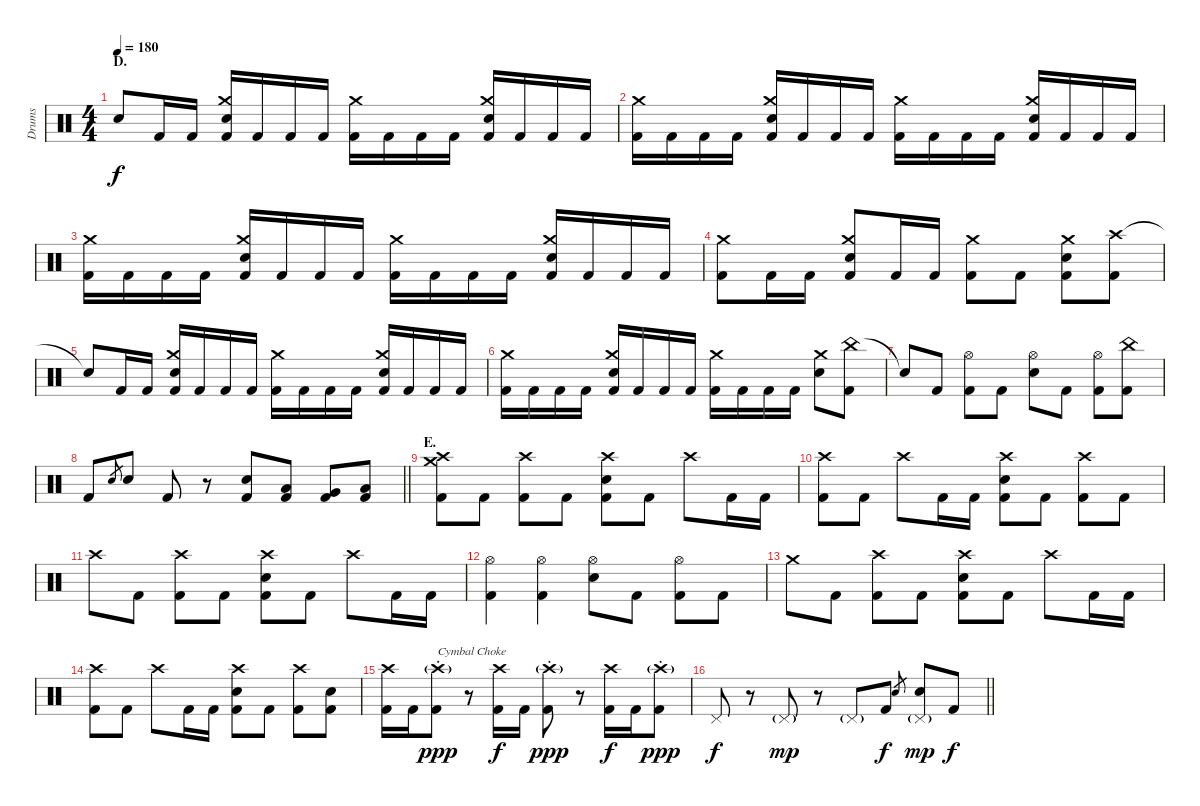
\track ("Drums" "Drums") {instrument percussion}
\staff {score}
\articulation defaults
\ts (4 4)
\section ("" "D.")
\tempo 180
\clef neutral
\ks c "Snare (hit)"{t}.8{dy f} "Kick (hit) 2".16 "Kick (hit) 2".16
("Crash medium (hit)" "Electric Snare (hit)" "Kick (hit) 2").16 "Kick (hit) 2".16 "Kick (hit) 2".16 "Kick (hit) 2".16 ("Crash medium (hit)" "Kick (hit) 2").16 "Kick (hit) 2".16 "Kick (hit) 2".16 "Kick (hit) 2".16 ("Crash medium (hit)" "Electric Snare (hit)" "Kick (hit) 2").16 "Kick (hit) 2".16 "Kick (hit) 2".16 "Kick (hit) 2".16 |
("Crash medium (hit)" "Kick (hit) 2").16 "Kick (hit) 2".16 "Kick (hit) 2".16 "Kick (hit) 2".16 ("Crash medium (hit)" "Electric Snare (hit)" "Kick (hit) 2").16 "Kick (hit) 2".16 "Kick (hit) 2".16 "Kick (hit) 2".16 ("Crash medium (hit)" "Kick (hit) 2").16 "Kick (hit) 2".16 "Kick (hit) 2".16 "Kick (hit) 2".16 ("Crash medium (hit)" "Electric Snare (hit)" "Kick (hit) 2").16 "Kick (hit) 2".16 "Kick (hit) 2".16 "Kick (hit) 2".16 |
("Crash medium (hit)" "Kick (hit) 2").16 "Kick (hit) 2".16 "Kick (hit) 2".16 "Kick (hit) 2".16 ("Crash medium (hit)" "Electric Snare (hit)" "Kick (hit) 2").16 "Kick (hit) 2".16 "Kick (hit) 2".16 "Kick (hit) 2".16 ("Crash medium (hit)" "Kick (hit) 2").16 "Kick (hit) 2".16 "Kick (hit) 2".16 "Kick (hit) 2".16 ("Crash medium (hit)" "Electric Snare (hit)" "Kick (hit) 2").16 "Kick (hit) 2".16 "Kick (hit) 2".16 "Kick (hit) 2".16 |
("Crash medium (hit)" "Kick (hit) 2").8 "Kick (hit) 2".16 "Kick (hit) 2".16 ("Crash medium (hit)" "Electric Snare (hit)" "Kick (hit) 2").8 "Kick (hit) 2".16 "Kick (hit) 2".16 ("Crash medium (hit)" "Kick (hit) 2").8 "Kick (hit) 2".8 ("Crash medium (hit)" "Electric Snare (hit)" "Kick (hit) 2").8 ("Crash high (hit)" "Kick (hit) 2").8 |
"Snare (hit)"{t}.8 "Kick (hit) 2".16 "Kick (hit) 2".16 ("Crash medium (hit)" "Electric Snare (hit)" "Kick (hit) 2").16 "Kick (hit) 2".16 "Kick (hit) 2".16 "Kick (hit) 2".16 ("Crash medium (hit)" "Kick (hit) 2").16 "Kick (hit) 2".16 "Kick (hit) 2".16 "Kick (hit) 2".16 ("Crash medium (hit)" "Electric Snare (hit)" "Kick (hit) 2").16 "Kick (hit) 2".16 "Kick (hit) 2".16 "Kick (hit) 2".16 |
("Crash medium (hit)" "Kick (hit) 2").16 "Kick (hit) 2".16 "Kick (hit) 2".16 "Kick (hit) 2".16 ("Crash medium (hit)" "Electric Snare (hit)" "Kick (hit) 2").16 "Kick (hit) 2".16 "Kick (hit) 2".16 "Kick (hit) 2".16 ("Crash medium (hit)" "Kick (hit) 2").16 "Kick (hit) 2".16 "Kick (hit) 2".16 "Kick (hit) 2".16 ("Crash medium (hit)" "Electric Snare (hit)").8 ("China (hit)" "Kick (hit) 2").8 |
"Snare (hit)"{t}.8 "Kick (hit) 2".8 ("Hi-Hat (open)" "Kick (hit) 2").8 "Kick (hit) 2".8 ("Hi-Hat (open)" "Electric Snare (hit)").8 "Kick (hit) 2".8 ("Hi-Hat (open)" "Kick (hit) 2").8 ("China (hit)" "Kick (hit) 2").8 |
\barLineRight lightlight "Kick (hit) 2".8 "Electric Snare (hit)".8{gr} "Electric Snare (hit)".8 "Kick (hit) 2".8
r.8 ("Electric Snare (hit)" "Kick (hit) 2").8 ("Low Tom (hit)" "Kick (hit) 2").8 ("Very Low Tom (hit)" "Kick (hit) 2").8 ("Low Floor Tom (hit)" "Kick (hit) 2").8 |
\section ("" "E.")
("Crash medium (hit)" "Crash high (hit)" "Kick (hit) 2").8 "Kick (hit) 2".8 ("Crash high (hit)" "Kick (hit) 2").8 "Kick (hit) 2".8 ("Crash high (hit)" "Electric Snare (hit)" "Kick (hit) 2").8 "Kick (hit) 2".8 "Crash high (hit)".8 "Kick (hit) 2".16 "Kick (hit) 2".16 |
("Crash high (hit)" "Kick (hit) 2").8 "Kick (hit) 2".8 "Crash high (hit)".8 "Kick (hit) 2".16 "Kick (hit) 2".16 ("Crash high (hit)" "Electric Snare (hit)" "Kick (hit) 2").8 "Kick (hit) 2".8 ("Crash high (hit)" "Kick (hit) 2").8 "Kick (hit) 2".8 |
"Crash high (hit)".8 "Kick (hit) 2".8 ("Crash high (hit)" "Kick (hit) 2").8 "Kick (hit) 2".8 ("Crash high (hit)" "Electric Snare (hit)" "Kick (hit) 2").8 "Kick (hit) 2".8 "Crash high (hit)".8 "Kick (hit) 2".16 "Kick (hit) 2".16 |
("Hi-Hat (open)" "Kick (hit) 2").4 ("Hi-Hat (open)" "Kick (hit) 2").4 ("Hi-Hat (open)" "Electric Snare (hit)").8 "Kick (hit) 2".8 ("Hi-Hat (open)" "Kick (hit) 2").8 "Kick (hit) 2".8 |
"Crash medium (hit)".8 "Kick (hit) 2".8 ("Crash high (hit)" "Kick (hit) 2").8 "Kick (hit) 2".8 ("Crash high (hit)" "Electric Snare (hit)" "Kick (hit) 2").8 "Kick (hit) 2".8 "Crash high (hit)".8 "Kick (hit) 2".16 "Kick (hit) 2".16 |
("Crash high (hit)" "Kick (hit) 2").8 "Kick (hit) 2".8 "Crash high (hit)".8 "Kick (hit) 2".16 "Kick (hit) 2".16 ("Crash high (hit)" "Electric Snare (hit)" "Kick (hit) 2").8 "Kick (hit) 2".8 ("Crash high (hit)" "Kick (hit) 2").8 ("Electric Snare (hit)" "Kick (hit) 2").8 |
("Crash high (hit)" "Kick (hit) 2").16 "Kick (hit) 2".16 ("Crash high (hit)"{g st} "Kick (hit) 2").8{txt "Cymbal Choke" dy ppp} r.8 ("Crash high (hit)" "Kick (hit) 2").16{dy f} "Kick (hit) 2".16 ("Crash high (hit)"{g st} "Kick (hit) 2").8{dy ppp} r.8 ("Crash high (hit)" "Kick (hit) 2").16{dy f} "Kick (hit) 2".16 ("Crash high (hit)"{g st} "Kick (hit) 2").8{dy ppp} |
\barLineRight lightlight "Pedal Hi-Hat (hit)".8{dy f}
r.8 "Pedal Hi-Hat (hit)"{g}.8{dy mp} r.8 "Pedal Hi-Hat (hit)"{g}.8 "Kick (hit) 2".8{dy f} "Electric Snare (hit)".8{gr} ("Pedal Hi-Hat (hit)"{g} "Electric Snare (hit)").8{dy mp} "Kick (hit) 2".8{dy f}
